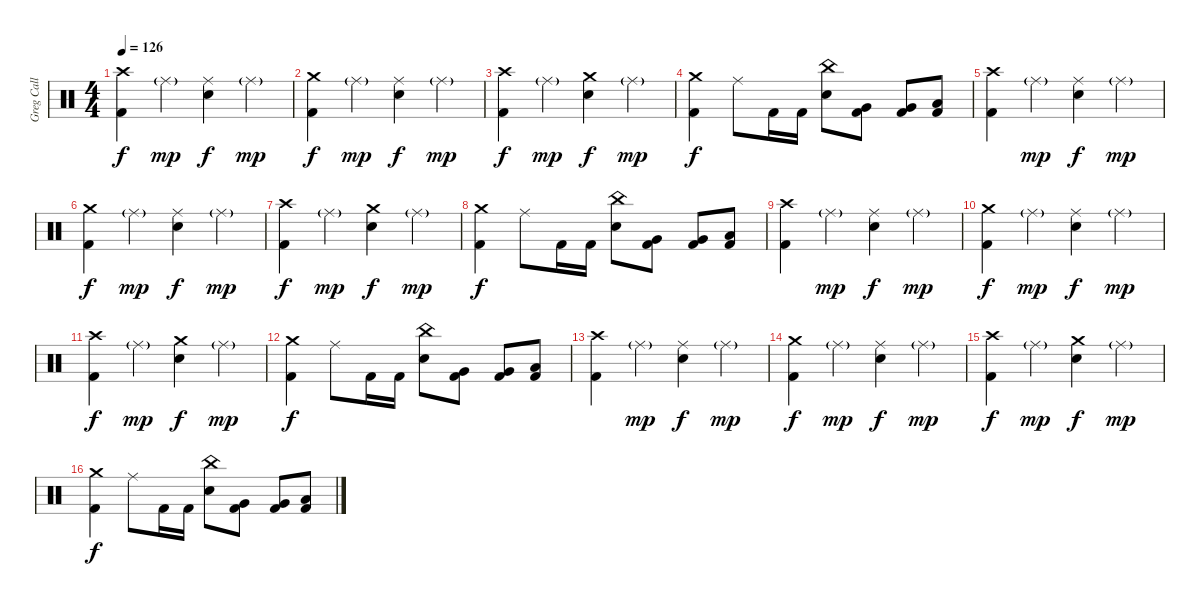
\track ("Greg Call (Drums)" "Greg Call ") {instrument percussion}
\staff {score}
\articulation defaults
\ts (4 4)
\tempo 126
\clef neutral
\ks c
("Crash high (hit)" "Kick (hit) 2").4{dy f} "Ride (middle)"{g}.4{dy mp} ("Ride (middle)" "Snare (hit) 2").4{dy f} "Ride (middle)"{g}.4{dy mp} |
("Crash medium (hit)" "Kick (hit) 2").4{dy f} "Ride (middle)"{g}.4{dy mp} ("Ride (middle)" "Snare (hit) 2").4{dy f} "Ride (middle)"{g}.4{dy mp} |
("Crash high (hit)" "Kick (hit) 2").4{dy f} "Ride (middle)"{g}.4{dy mp} ("Crash medium (hit)" "Snare (hit) 2").4{dy f} "Ride (middle)"{g}.4{dy mp} |
("Crash medium (hit)" "Kick (hit) 2").4{dy f} "Ride (middle)".8 "Kick (hit) 2".16 "Kick (hit) 2".16 ("China (hit)" "Snare (hit) 2").8 ("Very Low Tom (hit)" "Kick (hit) 2").8 ("Very Low Tom (hit)" "Kick (hit) 2").8 ("Low Floor Tom (hit)" "Kick (hit) 2").8 |
("Crash high (hit)" "Kick (hit) 2").4 "Ride (middle)"{g}.4{dy mp} ("Ride (middle)" "Snare (hit) 2").4{dy f} "Ride (middle)"{g}.4{dy mp} |
("Crash medium (hit)" "Kick (hit) 2").4{dy f} "Ride (middle)"{g}.4{dy mp} ("Ride (middle)" "Snare (hit) 2").4{dy f} "Ride (middle)"{g}.4{dy mp} |
("Crash high (hit)" "Kick (hit) 2").4{dy f} "Ride (middle)"{g}.4{dy mp} ("Crash medium (hit)" "Snare (hit) 2").4{dy f} "Ride (middle)"{g}.4{dy mp} |
("Crash medium (hit)" "Kick (hit) 2").4{dy f} "Ride (middle)".8 "Kick (hit) 2".16 "Kick (hit) 2".16 ("China (hit)" "Snare (hit) 2").8 ("Very Low Tom (hit)" "Kick (hit) 2").8 ("Very Low Tom (hit)" "Kick (hit) 2").8 ("Low Floor Tom (hit)" "Kick (hit) 2").8 |
("Crash high (hit)" "Kick (hit) 2").4 "Ride (middle)"{g}.4{dy mp} ("Ride (middle)" "Snare (hit) 2").4{dy f} "Ride (middle)"{g}.4{dy mp} |
("Crash medium (hit)" "Kick (hit) 2").4{dy f} "Ride (middle)"{g}.4{dy mp} ("Ride (middle)" "Snare (hit) 2").4{dy f} "Ride (middle)"{g}.4{dy mp} |
("Crash high (hit)" "Kick (hit) 2").4{dy f} "Ride (middle)"{g}.4{dy mp} ("Crash medium (hit)" "Snare (hit) 2").4{dy f} "Ride (middle)"{g}.4{dy mp} |
("Crash medium (hit)" "Kick (hit) 2").4{dy f} "Ride (middle)".8 "Kick (hit) 2".16 "Kick (hit) 2".16 ("China (hit)" "Snare (hit) 2").8 ("Very Low Tom (hit)" "Kick (hit) 2").8 ("Very Low Tom (hit)" "Kick (hit) 2").8 ("Low Floor Tom (hit)" "Kick (hit) 2").8 |
("Crash high (hit)" "Kick (hit) 2").4 "Ride (middle)"{g}.4{dy mp} ("Ride (middle)" "Snare (hit) 2").4{dy f} "Ride (middle)"{g}.4{dy mp} |
("Crash medium (hit)" "Kick (hit) 2").4{dy f} "Ride (middle)"{g}.4{dy mp} ("Ride (middle)" "Snare (hit) 2").4{dy f} "Ride (middle)"{g}.4{dy mp} |
("Crash high (hit)" "Kick (hit) 2").4{dy f} "Ride (middle)"{g}.4{dy mp} ("Crash medium (hit)" "Snare (hit) 2").4{dy f} "Ride (middle)"{g}.4{dy mp} |
("Crash medium (hit)" "Kick (hit) 2").4{dy f} "Ride (middle)".8 "Kick (hit) 2".16 "Kick (hit) 2".16 ("China (hit)" "Snare (hit) 2").8 ("Very Low Tom (hit)" "Kick (hit) 2").8 ("Very Low Tom (hit)" "Kick (hit) 2").8 ("Low Floor Tom (hit)" "Kick (hit) 2").8
